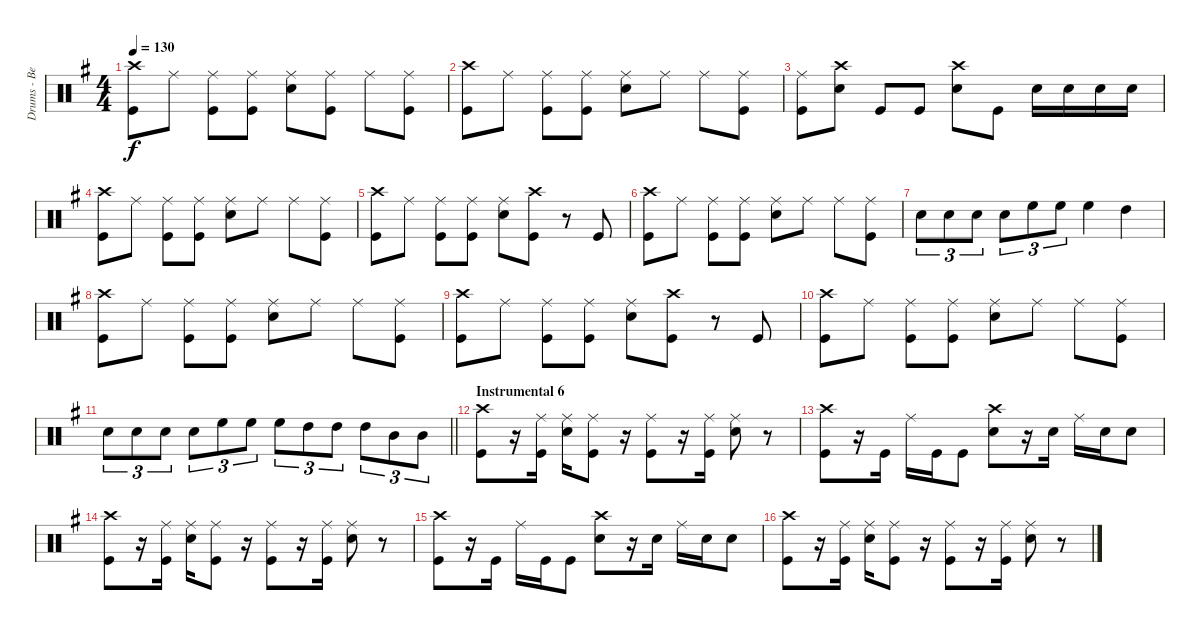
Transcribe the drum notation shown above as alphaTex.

\track ("Drums - Ben Johnston" "Drums - Be") {instrument percussion}
\staff {score}
\articulation defaults
\ts (4 4)
\tempo 130
\clef neutral
\ks g
("Crash high (hit)" "Kick (hit)").8{dy f} "Ride (middle)".8 ("Ride (middle)" "Kick (hit)").8 ("Ride (middle)" "Kick (hit)").8 ("Ride (middle)" "Snare (hit) 2").8 ("Ride (middle)" "Kick (hit)").8 "Ride (middle)".8 ("Ride (middle)" "Kick (hit)").8 |
("Crash high (hit)" "Kick (hit)").8 "Ride (middle)".8 ("Ride (middle)" "Kick (hit)").8 ("Ride (middle)" "Kick (hit)").8 ("Ride (middle)" "Snare (hit) 2").8 "Ride (middle)".8 "Ride (middle)".8 ("Ride (middle)" "Kick (hit)").8 |
("Ride (middle)" "Kick (hit)").8 ("Crash high (hit)" "Snare (hit) 2").8 "Kick (hit)".8 "Kick (hit)".8 ("Crash high (hit)" "Snare (hit) 2").8 "Kick (hit)".8 "Snare (hit) 2".16 "Snare (hit) 2".16 "Snare (hit) 2".16 "Snare (hit) 2".16 |
("Crash high (hit)" "Kick (hit)").8 "Ride (middle)".8 ("Ride (middle)" "Kick (hit)").8 ("Ride (middle)" "Kick (hit)").8 ("Ride (middle)" "Snare (hit) 2").8 "Ride (middle)".8 "Ride (middle)".8 ("Ride (middle)" "Kick (hit)").8 |
("Crash high (hit)" "Kick (hit)").8 "Ride (middle)".8 ("Ride (middle)" "Kick (hit)").8 ("Ride (middle)" "Kick (hit)").8 ("Ride (middle)" "Snare (hit) 2").8 ("Crash high (hit)" "Kick (hit)").8 r.8 "Kick (hit)".8 |
("Crash high (hit)" "Kick (hit)").8 "Ride (middle)".8 ("Ride (middle)" "Kick (hit)").8 ("Ride (middle)" "Kick (hit)").8 ("Ride (middle)" "Snare (hit) 2").8 "Ride (middle)".8 "Ride (middle)".8 ("Ride (middle)" "Kick (hit)").8 |
"Snare (hit) 2".8{tu (3 2)} "Snare (hit) 2".8{tu (3 2)} "Snare (hit) 2".8{tu (3 2)} "Snare (hit) 2".8{tu (3 2)} "High Floor Tom (hit)".8{tu (3 2)} "High Floor Tom (hit)".8{tu (3 2)} "High Floor Tom (hit)".4 "High Tom (hit)".4 |
("Crash high (hit)" "Kick (hit)").8 "Ride (middle)".8 ("Ride (middle)" "Kick (hit)").8 ("Ride (middle)" "Kick (hit)").8 ("Ride (middle)" "Snare (hit) 2").8 "Ride (middle)".8 "Ride (middle)".8 ("Ride (middle)" "Kick (hit)").8 |
("Crash high (hit)" "Kick (hit)").8 "Ride (middle)".8 ("Ride (middle)" "Kick (hit)").8 ("Ride (middle)" "Kick (hit)").8 ("Ride (middle)" "Snare (hit) 2").8 ("Crash high (hit)" "Kick (hit)").8 r.8 "Kick (hit)".8 |
("Crash high (hit)" "Kick (hit)").8 "Ride (middle)".8 ("Ride (middle)" "Kick (hit)").8 ("Ride (middle)" "Kick (hit)").8 ("Ride (middle)" "Snare (hit) 2").8 "Ride (middle)".8 "Ride (middle)".8 ("Ride (middle)" "Kick (hit)").8 |
\barLineRight lightlight "Snare (hit) 2".8{tu (3 2)} "Snare (hit) 2".8{tu (3 2)} "Snare (hit) 2".8{tu (3 2)} "Snare (hit) 2".8{tu (3 2)} "High Floor Tom (hit)".8{tu (3 2)} "High Floor Tom (hit)".8{tu (3 2)} "High Floor Tom (hit)".8{tu (3 2)} "High Tom (hit)".8{tu (3 2)} "High Tom (hit)".8{tu (3 2)} "High Tom (hit)".8{tu (3 2)} "Mid Tom (hit)".8{tu (3 2)} "Mid Tom (hit)".8{tu (3 2)}
|
\section ("" "Instrumental 6")
("Crash high (hit)" "Kick (hit)").8 r.16 ("Ride (middle)" "Kick (hit)").16 ("Ride (middle)" "Snare (hit) 2").16 ("Ride (middle)" "Kick (hit)").8 r.16 ("Ride (middle)" "Kick (hit)").8 r.16 ("Ride (middle)" "Kick (hit)").16 ("Ride (middle)" "Snare (hit) 2").8 r.8 |
("Crash high (hit)" "Kick (hit)").8 r.16 "Kick (hit)".16 "Ride (middle)".16 "Kick (hit)".16 "Kick (hit)".8 ("Crash high (hit)" "Snare (hit) 2").8 r.16 "Snare (hit) 2".16 "Ride (middle)".16 "Snare (hit) 2".16 "Snare (hit) 2".8 |
("Crash high (hit)" "Kick (hit)").8 r.16 ("Ride (middle)" "Kick (hit)").16 ("Ride (middle)" "Snare (hit) 2").16 ("Ride (middle)" "Kick (hit)").8 r.16 ("Ride (middle)" "Kick (hit)").8 r.16 ("Ride (middle)" "Kick (hit)").16 ("Ride (middle)" "Snare (hit) 2").8 r.8 |
("Crash high (hit)" "Kick (hit)").8 r.16 "Kick (hit)".16 "Ride (middle)".16 "Kick (hit)".16 "Kick (hit)".8 ("Crash high (hit)" "Snare (hit) 2").8 r.16 "Snare (hit) 2".16 "Ride (middle)".16 "Snare (hit) 2".16 "Snare (hit) 2".8 |
("Crash high (hit)" "Kick (hit)").8 r.16 ("Ride (middle)" "Kick (hit)").16 ("Ride (middle)" "Snare (hit) 2").16 ("Ride (middle)" "Kick (hit)").8 r.16 ("Ride (middle)" "Kick (hit)").8 r.16 ("Ride (middle)" "Kick (hit)").16 ("Ride (middle)" "Snare (hit) 2").8 r.8
